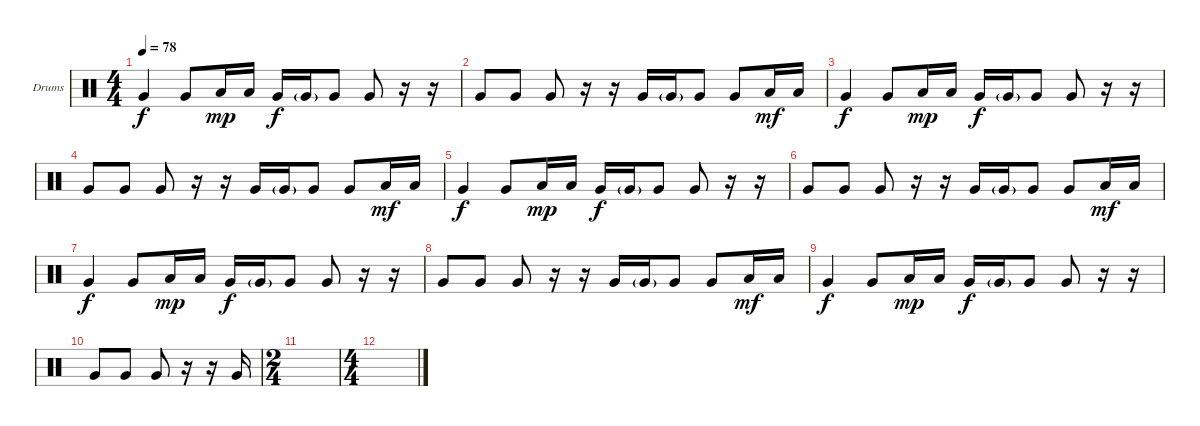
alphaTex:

\defaultSystemsLayout 4
\bracketExtendMode groupsimilarinstruments
\firstSystemTrackNameOrientation horizontal
\otherSystemsTrackNameOrientation horizontal
\track ("Drumkit" "Drums") {instrument percussion}
\staff {score}
\articulation defaults
\ts (4 4)
\tempo 78
\clef neutral
\scale
0.333333
\ks c "Very Low Tom (hit)".4{dy f} "Very Low Tom (hit)".8 "Low Tom (hit)".16{dy mp} "Low Tom (hit)".16 "Very Low Tom (hit)".16{dy f} "Very Low Tom (hit)"{g}.16 "Very Low Tom (hit)".8 "Very Low Tom (hit)".8
r.16 r.16 |
\scale
0.333333 "Very Low Tom (hit)".8 "Very Low Tom (hit)".8 "Very Low Tom (hit)".8 r.16 r.16 "Very Low Tom (hit)".16 "Very Low Tom (hit)"{g}.16 "Very Low Tom (hit)".8 "Very Low Tom (hit)".8 "Low Tom (hit)".16{dy mf} "Low Tom (hit)".16 |
\scale
0.333333 "Very Low Tom (hit)".4{dy f} "Very Low Tom (hit)".8 "Low Tom (hit)".16{dy mp} "Low Tom (hit)".16 "Very Low Tom (hit)".16{dy f} "Very Low Tom (hit)"{g}.16 "Very Low Tom (hit)".8 "Very Low Tom (hit)".8 r.16 r.16 |
\scale
0.333333 "Very Low Tom (hit)".8 "Very Low Tom (hit)".8 "Very Low Tom (hit)".8 r.16 r.16 "Very Low Tom (hit)".16 "Very Low Tom (hit)"{g}.16 "Very Low Tom (hit)".8 "Very Low Tom (hit)".8 "Low Tom (hit)".16{dy mf} "Low Tom (hit)".16 |
\scale
0.333333 "Very Low Tom (hit)".4{dy f} "Very Low Tom (hit)".8 "Low Tom (hit)".16{dy mp} "Low Tom (hit)".16 "Very Low Tom (hit)".16{dy f} "Very Low Tom (hit)"{g}.16 "Very Low Tom (hit)".8 "Very Low Tom (hit)".8 r.16 r.16 |
\scale
0.333333 "Very Low Tom (hit)".8 "Very Low Tom (hit)".8 "Very Low Tom (hit)".8 r.16 r.16 "Very Low Tom (hit)".16 "Very Low Tom (hit)"{g}.16 "Very Low Tom (hit)".8 "Very Low Tom (hit)".8 "Low Tom (hit)".16{dy mf} "Low Tom (hit)".16 |
\scale
0.333333 "Very Low Tom (hit)".4{dy f} "Very Low Tom (hit)".8 "Low Tom (hit)".16{dy mp} "Low Tom (hit)".16 "Very Low Tom (hit)".16{dy f} "Very Low Tom (hit)"{g}.16 "Very Low Tom (hit)".8 "Very Low Tom (hit)".8 r.16 r.16 |
\scale
0.333333 "Very Low Tom (hit)".8 "Very Low Tom (hit)".8 "Very Low Tom (hit)".8 r.16 r.16 "Very Low Tom (hit)".16 "Very Low Tom (hit)"{g}.16 "Very Low Tom (hit)".8 "Very Low Tom (hit)".8 "Low Tom (hit)".16{dy mf} "Low Tom (hit)".16 |
\scale
0.333333 "Very Low Tom (hit)".4{dy f} "Very Low Tom (hit)".8 "Low Tom (hit)".16{dy mp} "Low Tom (hit)".16 "Very Low Tom (hit)".16{dy f} "Very Low Tom (hit)"{g}.16 "Very Low Tom (hit)".8 "Very Low Tom (hit)".8 r.16 r.16 |
\scale
0.333333 "Very Low Tom (hit)".8 "Very Low Tom (hit)".8 "Very Low Tom (hit)".8 r.16 r.16 "Very Low Tom (hit)".16 |
\ts (2 4)
\scale
0.333333 |
\ts (4 4)
\scale
0.333333 |
\scale
0.333333 |
\scale
0.333333 |
\scale
0.333333 |
\scale
0.333333
